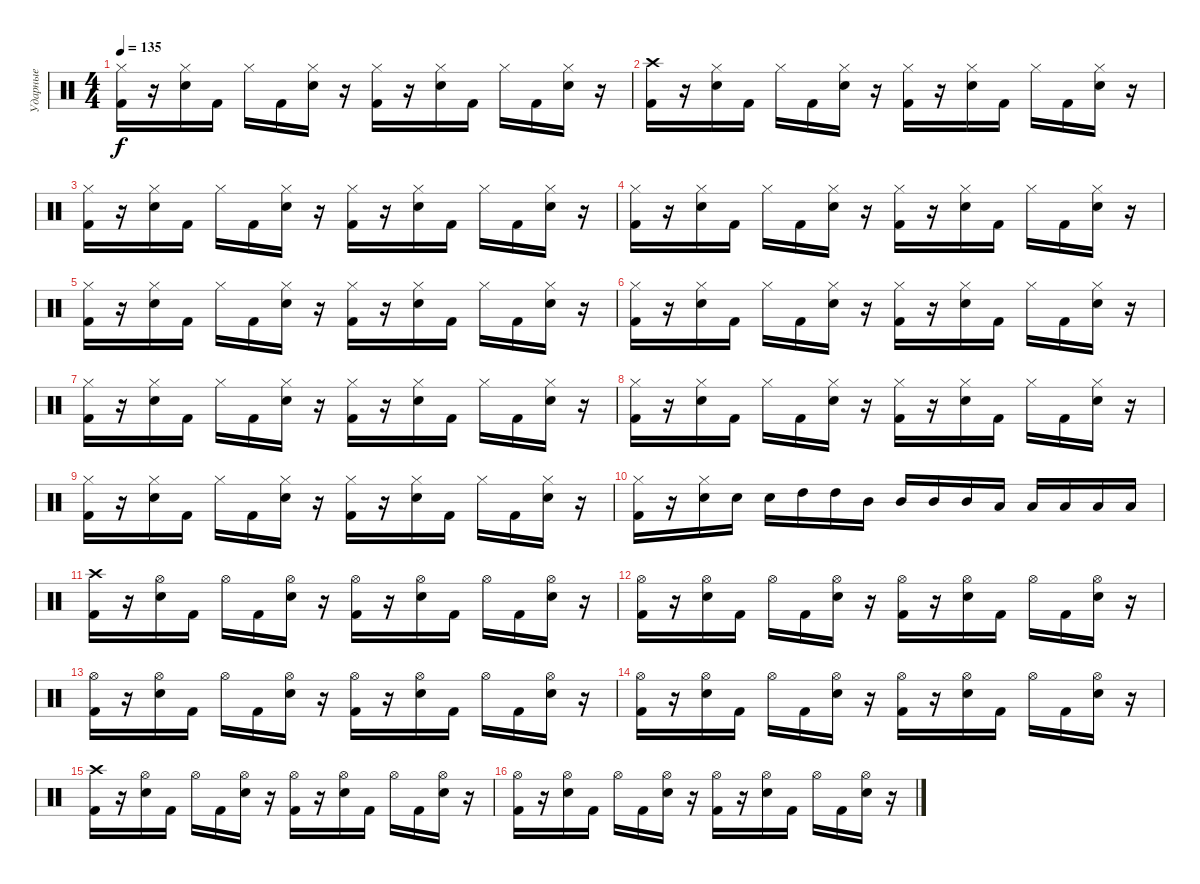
\track ("Ударные" "Ударные") {instrument percussion}
\staff {score}
\articulation defaults
\ts (4 4)
\tempo 135
\clef neutral
\ks c
("Hi-Hat (closed)" "Kick (hit) 2").16{dy f} r.16 ("Hi-Hat (closed)" "Electric Snare (hit)").16 "Kick (hit) 2".16 "Hi-Hat (closed)".16 "Kick (hit) 2".16 ("Hi-Hat (closed)" "Electric Snare (hit)").16 r.16 ("Hi-Hat (closed)" "Kick (hit) 2").16 r.16 ("Hi-Hat (closed)" "Electric Snare (hit)").16 "Kick (hit) 2".16 "Hi-Hat (closed)".16 "Kick (hit) 2".16 ("Hi-Hat (closed)" "Electric Snare (hit)").16 r.16 |
("Kick (hit) 2" "Crash high (hit)").16 r.16 ("Hi-Hat (closed)" "Electric Snare (hit)").16 "Kick (hit) 2".16 "Hi-Hat (closed)".16 "Kick (hit) 2".16 ("Hi-Hat (closed)" "Electric Snare (hit)").16 r.16 ("Hi-Hat (closed)" "Kick (hit) 2").16 r.16 ("Hi-Hat (closed)" "Electric Snare (hit)").16 "Kick (hit) 2".16 "Hi-Hat (closed)".16 "Kick (hit) 2".16 ("Hi-Hat (closed)" "Electric Snare (hit)").16 r.16 |
("Hi-Hat (closed)" "Kick (hit) 2").16 r.16 ("Hi-Hat (closed)" "Electric Snare (hit)").16 "Kick (hit) 2".16 "Hi-Hat (closed)".16 "Kick (hit) 2".16 ("Hi-Hat (closed)" "Electric Snare (hit)").16 r.16 ("Hi-Hat (closed)" "Kick (hit) 2").16 r.16 ("Hi-Hat (closed)" "Electric Snare (hit)").16 "Kick (hit) 2".16 "Hi-Hat (closed)".16 "Kick (hit) 2".16 ("Hi-Hat (closed)" "Electric Snare (hit)").16 r.16 |
("Hi-Hat (closed)" "Kick (hit) 2").16 r.16 ("Hi-Hat (closed)" "Electric Snare (hit)").16 "Kick (hit) 2".16 "Hi-Hat (closed)".16 "Kick (hit) 2".16 ("Hi-Hat (closed)" "Electric Snare (hit)").16 r.16 ("Hi-Hat (closed)" "Kick (hit) 2").16 r.16 ("Hi-Hat (closed)" "Electric Snare (hit)").16 "Kick (hit) 2".16 "Hi-Hat (closed)".16 "Kick (hit) 2".16 ("Hi-Hat (closed)" "Electric Snare (hit)").16 r.16 |
("Hi-Hat (closed)" "Kick (hit) 2").16 r.16 ("Hi-Hat (closed)" "Electric Snare (hit)").16 "Kick (hit) 2".16 "Hi-Hat (closed)".16 "Kick (hit) 2".16 ("Hi-Hat (closed)" "Electric Snare (hit)").16 r.16 ("Hi-Hat (closed)" "Kick (hit) 2").16 r.16 ("Hi-Hat (closed)" "Electric Snare (hit)").16 "Kick (hit) 2".16 "Hi-Hat (closed)".16 "Kick (hit) 2".16 ("Hi-Hat (closed)" "Electric Snare (hit)").16 r.16 |
("Hi-Hat (closed)" "Kick (hit) 2").16 r.16 ("Hi-Hat (closed)" "Electric Snare (hit)").16 "Kick (hit) 2".16 "Hi-Hat (closed)".16 "Kick (hit) 2".16 ("Hi-Hat (closed)" "Electric Snare (hit)").16 r.16 ("Hi-Hat (closed)" "Kick (hit) 2").16 r.16 ("Hi-Hat (closed)" "Electric Snare (hit)").16 "Kick (hit) 2".16 "Hi-Hat (closed)".16 "Kick (hit) 2".16 ("Hi-Hat (closed)" "Electric Snare (hit)").16 r.16 |
("Hi-Hat (closed)" "Kick (hit) 2").16 r.16 ("Hi-Hat (closed)" "Electric Snare (hit)").16 "Kick (hit) 2".16 "Hi-Hat (closed)".16 "Kick (hit) 2".16 ("Hi-Hat (closed)" "Electric Snare (hit)").16 r.16 ("Hi-Hat (closed)" "Kick (hit) 2").16 r.16 ("Hi-Hat (closed)" "Electric Snare (hit)").16 "Kick (hit) 2".16 "Hi-Hat (closed)".16 "Kick (hit) 2".16 ("Hi-Hat (closed)" "Electric Snare (hit)").16 r.16 |
("Hi-Hat (closed)" "Kick (hit) 2").16 r.16 ("Hi-Hat (closed)" "Electric Snare (hit)").16 "Kick (hit) 2".16 "Hi-Hat (closed)".16 "Kick (hit) 2".16 ("Hi-Hat (closed)" "Electric Snare (hit)").16 r.16 ("Hi-Hat (closed)" "Kick (hit) 2").16 r.16 ("Hi-Hat (closed)" "Electric Snare (hit)").16 "Kick (hit) 2".16 "Hi-Hat (closed)".16 "Kick (hit) 2".16 ("Hi-Hat (closed)" "Electric Snare (hit)").16 r.16 |
("Hi-Hat (closed)" "Kick (hit) 2").16 r.16 ("Hi-Hat (closed)" "Electric Snare (hit)").16 "Kick (hit) 2".16 "Hi-Hat (closed)".16 "Kick (hit) 2".16 ("Hi-Hat (closed)" "Electric Snare (hit)").16 r.16 ("Hi-Hat (closed)" "Kick (hit) 2").16 r.16 ("Hi-Hat (closed)" "Electric Snare (hit)").16 "Kick (hit) 2".16 "Hi-Hat (closed)".16 "Kick (hit) 2".16 ("Hi-Hat (closed)" "Electric Snare (hit)").16 r.16 |
("Hi-Hat (closed)" "Kick (hit) 2").16 r.16 ("Hi-Hat (closed)" "Electric Snare (hit)").16 "Electric Snare (hit)".16 "Electric Snare (hit)".16 "High Tom (hit)".16 "High Tom (hit)".16 "Mid Tom (hit)".16 "Mid Tom (hit)".16 "Mid Tom (hit)".16 "Mid Tom (hit)".16 "Low Tom (hit)".16 "Low Tom (hit)".16 "Low Tom (hit)".16 "Low Tom (hit)".16 "Low Tom (hit)".16 |
("Crash high (hit)" "Kick (hit) 2").16 r.16 ("Hi-Hat (open)" "Electric Snare (hit)").16 "Kick (hit) 2".16 "Hi-Hat (open)".16 "Kick (hit) 2".16 ("Hi-Hat (open)" "Electric Snare (hit)").16 r.16 ("Hi-Hat (open)" "Kick (hit) 2").16 r.16 ("Hi-Hat (open)" "Electric Snare (hit)").16 "Kick (hit) 2".16 "Hi-Hat (open)".16 "Kick (hit) 2".16 ("Hi-Hat (open)" "Electric Snare (hit)").16 r.16 |
("Hi-Hat (open)" "Kick (hit) 2").16 r.16 ("Hi-Hat (open)" "Electric Snare (hit)").16 "Kick (hit) 2".16 "Hi-Hat (open)".16 "Kick (hit) 2".16 ("Hi-Hat (open)" "Electric Snare (hit)").16 r.16 ("Hi-Hat (open)" "Kick (hit) 2").16 r.16 ("Hi-Hat (open)" "Electric Snare (hit)").16 "Kick (hit) 2".16 "Hi-Hat (open)".16 "Kick (hit) 2".16 ("Hi-Hat (open)" "Electric Snare (hit)").16 r.16 |
("Hi-Hat (open)" "Kick (hit) 2").16 r.16 ("Hi-Hat (open)" "Electric Snare (hit)").16 "Kick (hit) 2".16 "Hi-Hat (open)".16 "Kick (hit) 2".16 ("Hi-Hat (open)" "Electric Snare (hit)").16 r.16 ("Hi-Hat (open)" "Kick (hit) 2").16 r.16 ("Hi-Hat (open)" "Electric Snare (hit)").16 "Kick (hit) 2".16 "Hi-Hat (open)".16 "Kick (hit) 2".16 ("Hi-Hat (open)" "Electric Snare (hit)").16 r.16 |
("Hi-Hat (open)" "Kick (hit) 2").16 r.16 ("Hi-Hat (open)" "Electric Snare (hit)").16 "Kick (hit) 2".16 "Hi-Hat (open)".16 "Kick (hit) 2".16 ("Hi-Hat (open)" "Electric Snare (hit)").16 r.16 ("Hi-Hat (open)" "Kick (hit) 2").16 r.16 ("Hi-Hat (open)" "Electric Snare (hit)").16 "Kick (hit) 2".16 "Hi-Hat (open)".16 "Kick (hit) 2".16 ("Hi-Hat (open)" "Electric Snare (hit)").16 r.16 |
("Crash high (hit)" "Kick (hit) 2").16 r.16 ("Hi-Hat (open)" "Electric Snare (hit)").16 "Kick (hit) 2".16 "Hi-Hat (open)".16 "Kick (hit) 2".16 ("Hi-Hat (open)" "Electric Snare (hit)").16 r.16 ("Hi-Hat (open)" "Kick (hit) 2").16 r.16 ("Hi-Hat (open)" "Electric Snare (hit)").16 "Kick (hit) 2".16 "Hi-Hat (open)".16 "Kick (hit) 2".16 ("Hi-Hat (open)" "Electric Snare (hit)").16 r.16 |
("Hi-Hat (open)" "Kick (hit) 2").16 r.16 ("Hi-Hat (open)" "Electric Snare (hit)").16 "Kick (hit) 2".16 "Hi-Hat (open)".16 "Kick (hit) 2".16 ("Hi-Hat (open)" "Electric Snare (hit)").16 r.16 ("Hi-Hat (open)" "Kick (hit) 2").16 r.16 ("Hi-Hat (open)" "Electric Snare (hit)").16 "Kick (hit) 2".16 "Hi-Hat (open)".16 "Kick (hit) 2".16 ("Hi-Hat (open)" "Electric Snare (hit)").16 r.16
